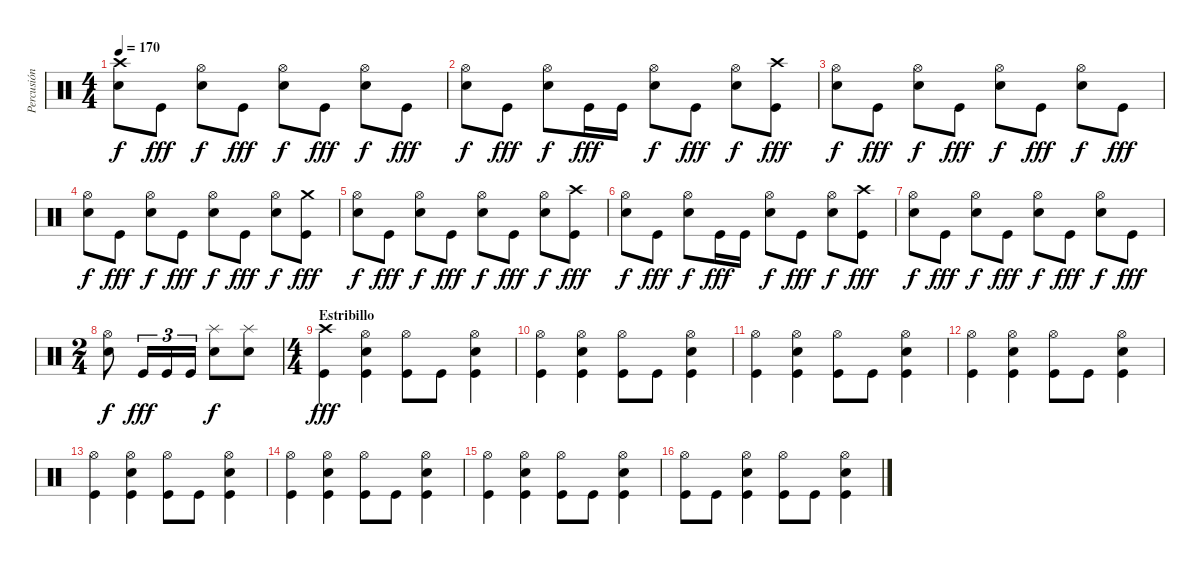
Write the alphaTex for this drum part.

\track ("Percusión" "Percusión") {instrument percussion}
\staff {score}
\articulation defaults
\ts (4 4)
\tempo 170
\clef neutral
\ks c
("Crash high (hit)" "Electric Snare (hit)").8{dy f} "Kick (hit)".8{dy fff} ("Hi-Hat (open)" "Electric Snare (hit)").8{dy f} "Kick (hit)".8{dy fff} ("Hi-Hat (open)" "Electric Snare (hit)").8{dy f} "Kick (hit)".8{dy fff} ("Hi-Hat (open)" "Electric Snare (hit)").8{dy f} "Kick (hit)".8{dy fff} |
("Hi-Hat (open)" "Electric Snare (hit)").8{dy f} "Kick (hit)".8{dy fff} ("Hi-Hat (open)" "Electric Snare (hit)").8{dy f} "Kick (hit)".16{dy fff} "Kick (hit)".16 ("Hi-Hat (open)" "Electric Snare (hit)").8{dy f} "Kick (hit)".8{dy fff} ("Hi-Hat (open)" "Electric Snare (hit)").8{dy f} ("Crash high (hit)" "Kick (hit)").8{dy fff} |
("Hi-Hat (open)" "Electric Snare (hit)").8{dy f} "Kick (hit)".8{dy fff} ("Hi-Hat (open)" "Electric Snare (hit)").8{dy f} "Kick (hit)".8{dy fff} ("Hi-Hat (open)" "Electric Snare (hit)").8{dy f} "Kick (hit)".8{dy fff} ("Hi-Hat (open)" "Electric Snare (hit)").8{dy f} "Kick (hit)".8{dy fff} |
("Hi-Hat (open)" "Electric Snare (hit)").8{dy f} "Kick (hit)".8{dy fff} ("Hi-Hat (open)" "Electric Snare (hit)").8{dy f} "Kick (hit)".8{dy fff} ("Hi-Hat (open)" "Electric Snare (hit)").8{dy f} "Kick (hit)".8{dy fff} ("Hi-Hat (open)" "Electric Snare (hit)").8{dy f} ("Crash medium (hit)" "Kick (hit)").8{dy fff} |
("Hi-Hat (open)" "Electric Snare (hit)").8{dy f} "Kick (hit)".8{dy fff} ("Hi-Hat (open)" "Electric Snare (hit)").8{dy f} "Kick (hit)".8{dy fff} ("Hi-Hat (open)" "Electric Snare (hit)").8{dy f} "Kick (hit)".8{dy fff} ("Hi-Hat (open)" "Electric Snare (hit)").8{dy f} ("Crash high (hit)" "Kick (hit)").8{dy fff} |
("Hi-Hat (open)" "Electric Snare (hit)").8{dy f} "Kick (hit)".8{dy fff} ("Hi-Hat (open)" "Electric Snare (hit)").8{dy f} "Kick (hit)".16{dy fff} "Kick (hit)".16 ("Hi-Hat (open)" "Electric Snare (hit)").8{dy f} "Kick (hit)".8{dy fff} ("Hi-Hat (open)" "Electric Snare (hit)").8{dy f} ("Crash high (hit)" "Kick (hit)").8{dy fff} |
("Hi-Hat (open)" "Electric Snare (hit)").8{dy f} "Kick (hit)".8{dy fff} ("Hi-Hat (open)" "Electric Snare (hit)").8{dy f} "Kick (hit)".8{dy fff} ("Hi-Hat (open)" "Electric Snare (hit)").8{dy f} "Kick (hit)".8{dy fff} ("Hi-Hat (open)" "Electric Snare (hit)").8{dy f} "Kick (hit)".8{dy fff} |
\ts (2 4)
("Hi-Hat (open)" "Electric Snare (hit)").8{dy f} "Kick (hit)".16{tu (3 2) dy fff} "Kick (hit)".16{tu (3 2)} "Kick (hit)".16{tu (3 2)} ("Splash (hit)" "Electric Snare (hit)").8{dy f} ("Splash (hit)" "Electric Snare (hit)").8 |
\ts (4 4)
\section ("" "Estribillo")
("Crash high (hit)" "Kick (hit)").4{dy fff} ("Hi-Hat (open)" "Electric Snare (hit)" "Kick (hit)").4 ("Hi-Hat (open)" "Kick (hit)").8 "Kick (hit)".8 ("Hi-Hat (open)" "Electric Snare (hit)" "Kick (hit)").4 |
("Hi-Hat (open)" "Kick (hit)").4 ("Hi-Hat (open)" "Electric Snare (hit)" "Kick (hit)").4 ("Hi-Hat (open)" "Kick (hit)").8 "Kick (hit)".8 ("Hi-Hat (open)" "Electric Snare (hit)" "Kick (hit)").4 |
("Hi-Hat (open)" "Kick (hit)").4 ("Hi-Hat (open)" "Electric Snare (hit)" "Kick (hit)").4 ("Hi-Hat (open)" "Kick (hit)").8 "Kick (hit)".8 ("Hi-Hat (open)" "Electric Snare (hit)" "Kick (hit)").4 |
("Hi-Hat (open)" "Kick (hit)").4 ("Hi-Hat (open)" "Electric Snare (hit)" "Kick (hit)").4 ("Hi-Hat (open)" "Kick (hit)").8 "Kick (hit)".8 ("Hi-Hat (open)" "Electric Snare (hit)" "Kick (hit)").4 |
("Hi-Hat (open)" "Kick (hit)").4 ("Hi-Hat (open)" "Electric Snare (hit)" "Kick (hit)").4 ("Hi-Hat (open)" "Kick (hit)").8 "Kick (hit)".8 ("Hi-Hat (open)" "Electric Snare (hit)" "Kick (hit)").4 |
("Hi-Hat (open)" "Kick (hit)").4 ("Hi-Hat (open)" "Electric Snare (hit)" "Kick (hit)").4 ("Hi-Hat (open)" "Kick (hit)").8 "Kick (hit)".8 ("Hi-Hat (open)" "Electric Snare (hit)" "Kick (hit)").4 |
("Hi-Hat (open)" "Kick (hit)").4 ("Hi-Hat (open)" "Electric Snare (hit)" "Kick (hit)").4 ("Hi-Hat (open)" "Kick (hit)").8 "Kick (hit)".8 ("Hi-Hat (open)" "Electric Snare (hit)" "Kick (hit)").4 |
("Hi-Hat (open)" "Kick (hit)").8 "Kick (hit)".8 ("Hi-Hat (open)" "Electric Snare (hit)" "Kick (hit)").4 ("Hi-Hat (open)" "Kick (hit)").8 "Kick (hit)".8 ("Hi-Hat (open)" "Electric Snare (hit)" "Kick (hit)").4
